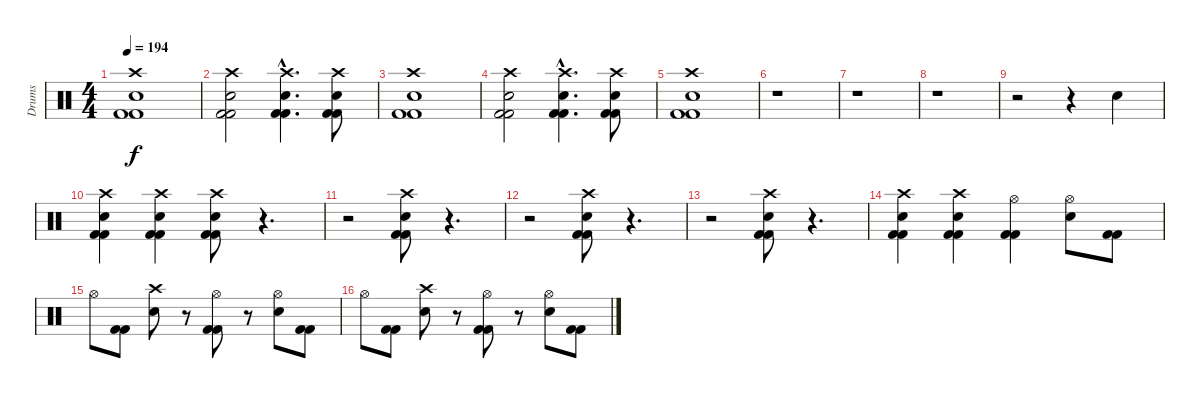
\track ("Drums" "Drums") {instrument percussion}
\staff {score}
\articulation defaults
\ts (4 4)
\tempo 194
\clef neutral
\ks c
("Crash high (hit)" "Electric Snare (hit)" "Kick (hit) 2" "Kick (hit) 2").1{dy f} |
("Crash high (hit)" "Electric Snare (hit)" "Kick (hit) 2" "Kick (hit) 2").2 ("Crash high (hit)"{hac} "Electric Snare (hit)"{hac} "Kick (hit) 2"{hac} "Kick (hit) 2"{hac}).4{d} ("Crash high (hit)" "Electric Snare (hit)" "Kick (hit) 2" "Kick (hit) 2").8 |
("Crash high (hit)" "Electric Snare (hit)" "Kick (hit) 2" "Kick (hit) 2").1 |
("Crash high (hit)" "Electric Snare (hit)" "Kick (hit) 2" "Kick (hit) 2").2 ("Crash high (hit)"{hac} "Electric Snare (hit)"{hac} "Kick (hit) 2"{hac} "Kick (hit) 2"{hac}).4{d} ("Crash high (hit)" "Electric Snare (hit)" "Kick (hit) 2" "Kick (hit) 2").8 |
("Crash high (hit)" "Electric Snare (hit)" "Kick (hit) 2" "Kick (hit) 2").1 |
r.1 |
r.1 |
r.1 |
r.2 r.4 "Electric Snare (hit)".4 |
("Crash high (hit)" "Electric Snare (hit)" "Kick (hit) 2" "Kick (hit) 2").4 ("Crash high (hit)" "Electric Snare (hit)" "Kick (hit) 2" "Kick (hit) 2").4 ("Crash high (hit)" "Electric Snare (hit)" "Kick (hit) 2" "Kick (hit) 2").8 r.4{d} |
r.2 ("Crash high (hit)" "Electric Snare (hit)" "Kick (hit) 2" "Kick (hit) 2").8 r.4{d} |
r.2 ("Crash high (hit)" "Electric Snare (hit)" "Kick (hit) 2" "Kick (hit) 2").8 r.4{d} |
r.2 ("Crash high (hit)" "Electric Snare (hit)" "Kick (hit) 2" "Kick (hit) 2").8 r.4{d} |
("Crash high (hit)" "Electric Snare (hit)" "Kick (hit) 2" "Kick (hit) 2").4 ("Crash high (hit)" "Electric Snare (hit)" "Kick (hit) 2" "Kick (hit) 2").4 ("Hi-Hat (open)" "Kick (hit) 2" "Kick (hit) 2").4 ("Hi-Hat (open)" "Electric Snare (hit)").8 ("Kick (hit) 2" "Kick (hit) 2").8 |
"Hi-Hat (open)".8 ("Kick (hit) 2" "Kick (hit) 2").8 ("Crash high (hit)" "Electric Snare (hit)").8 r.8 ("Hi-Hat (open)" "Kick (hit) 2" "Kick (hit) 2").8 r.8 ("Hi-Hat (open)" "Electric Snare (hit)").8 ("Kick (hit) 2" "Kick (hit) 2").8 |
"Hi-Hat (open)".8 ("Kick (hit) 2" "Kick (hit) 2").8 ("Crash high (hit)" "Electric Snare (hit)").8 r.8 ("Hi-Hat (open)" "Kick (hit) 2" "Kick (hit) 2").8 r.8 ("Hi-Hat (open)" "Electric Snare (hit)").8 ("Kick (hit) 2" "Kick (hit) 2").8
